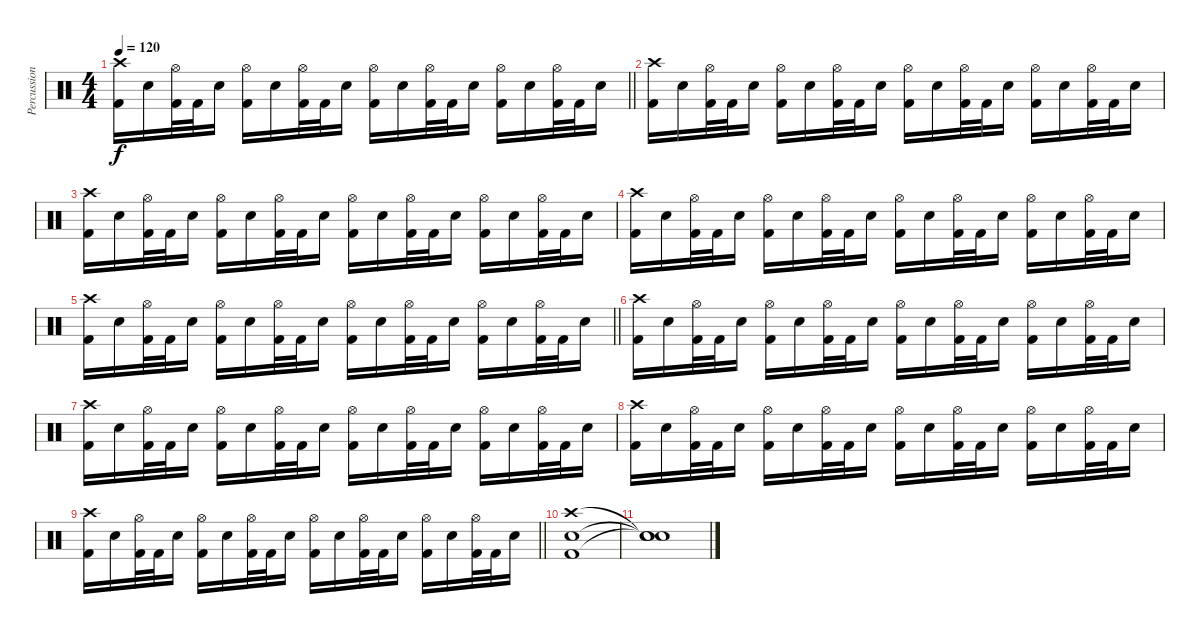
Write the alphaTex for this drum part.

\track ("Percussion" "Percussion") {instrument percussion}
\staff {score}
\articulation defaults
\ts (4 4)
\tempo 120
\clef neutral
\barLineRight lightlight
\ks c
("Crash high (hit)" "Kick (hit) 2").16{dy f} "Snare (hit) 2".16 ("Hi-Hat (open)" "Kick (hit) 2").32 "Kick (hit) 2".32 "Snare (hit) 2".16 ("Hi-Hat (open)" "Kick (hit) 2").16 "Snare (hit) 2".16 ("Hi-Hat (open)" "Kick (hit) 2").32 "Kick (hit) 2".32 "Snare (hit) 2".16 ("Hi-Hat (open)" "Kick (hit) 2").16 "Snare (hit) 2".16 ("Hi-Hat (open)" "Kick (hit) 2").32 "Kick (hit) 2".32 "Snare (hit) 2".16 ("Hi-Hat (open)" "Kick (hit) 2").16 "Snare (hit) 2".16 ("Hi-Hat (open)" "Kick (hit) 2").32 "Kick (hit) 2".32 "Snare (hit) 2".16 |
("Crash high (hit)" "Kick (hit) 2").16 "Snare (hit) 2".16 ("Hi-Hat (open)" "Kick (hit) 2").32 "Kick (hit) 2".32 "Snare (hit) 2".16 ("Hi-Hat (open)" "Kick (hit) 2").16 "Snare (hit) 2".16 ("Hi-Hat (open)" "Kick (hit) 2").32 "Kick (hit) 2".32 "Snare (hit) 2".16 ("Hi-Hat (open)" "Kick (hit) 2").16 "Snare (hit) 2".16 ("Hi-Hat (open)" "Kick (hit) 2").32 "Kick (hit) 2".32 "Snare (hit) 2".16 ("Hi-Hat (open)" "Kick (hit) 2").16 "Snare (hit) 2".16 ("Hi-Hat (open)" "Kick (hit) 2").32 "Kick (hit) 2".32 "Snare (hit) 2".16 |
("Crash high (hit)" "Kick (hit) 2").16 "Snare (hit) 2".16 ("Hi-Hat (open)" "Kick (hit) 2").32 "Kick (hit) 2".32 "Snare (hit) 2".16 ("Hi-Hat (open)" "Kick (hit) 2").16 "Snare (hit) 2".16 ("Hi-Hat (open)" "Kick (hit) 2").32 "Kick (hit) 2".32 "Snare (hit) 2".16 ("Hi-Hat (open)" "Kick (hit) 2").16 "Snare (hit) 2".16 ("Hi-Hat (open)" "Kick (hit) 2").32 "Kick (hit) 2".32 "Snare (hit) 2".16 ("Hi-Hat (open)" "Kick (hit) 2").16 "Snare (hit) 2".16 ("Hi-Hat (open)" "Kick (hit) 2").32 "Kick (hit) 2".32 "Snare (hit) 2".16 |
("Crash high (hit)" "Kick (hit) 2").16 "Snare (hit) 2".16 ("Hi-Hat (open)" "Kick (hit) 2").32 "Kick (hit) 2".32 "Snare (hit) 2".16 ("Hi-Hat (open)" "Kick (hit) 2").16 "Snare (hit) 2".16 ("Hi-Hat (open)" "Kick (hit) 2").32 "Kick (hit) 2".32 "Snare (hit) 2".16 ("Hi-Hat (open)" "Kick (hit) 2").16 "Snare (hit) 2".16 ("Hi-Hat (open)" "Kick (hit) 2").32 "Kick (hit) 2".32 "Snare (hit) 2".16 ("Hi-Hat (open)" "Kick (hit) 2").16 "Snare (hit) 2".16 ("Hi-Hat (open)" "Kick (hit) 2").32 "Kick (hit) 2".32 "Snare (hit) 2".16 |
\barLineRight lightlight
("Crash high (hit)" "Kick (hit) 2").16 "Snare (hit) 2".16 ("Hi-Hat (open)" "Kick (hit) 2").32 "Kick (hit) 2".32 "Snare (hit) 2".16 ("Hi-Hat (open)" "Kick (hit) 2").16 "Snare (hit) 2".16 ("Hi-Hat (open)" "Kick (hit) 2").32 "Kick (hit) 2".32 "Snare (hit) 2".16 ("Hi-Hat (open)" "Kick (hit) 2").16 "Snare (hit) 2".16 ("Hi-Hat (open)" "Kick (hit) 2").32 "Kick (hit) 2".32 "Snare (hit) 2".16 ("Hi-Hat (open)" "Kick (hit) 2").16 "Snare (hit) 2".16 ("Hi-Hat (open)" "Kick (hit) 2").32 "Kick (hit) 2".32 "Snare (hit) 2".16 |
("Crash high (hit)" "Kick (hit) 2").16 "Snare (hit) 2".16 ("Hi-Hat (open)" "Kick (hit) 2").32 "Kick (hit) 2".32 "Snare (hit) 2".16 ("Hi-Hat (open)" "Kick (hit) 2").16 "Snare (hit) 2".16 ("Hi-Hat (open)" "Kick (hit) 2").32 "Kick (hit) 2".32 "Snare (hit) 2".16 ("Hi-Hat (open)" "Kick (hit) 2").16 "Snare (hit) 2".16 ("Hi-Hat (open)" "Kick (hit) 2").32 "Kick (hit) 2".32 "Snare (hit) 2".16 ("Hi-Hat (open)" "Kick (hit) 2").16 "Snare (hit) 2".16 ("Hi-Hat (open)" "Kick (hit) 2").32 "Kick (hit) 2".32 "Snare (hit) 2".16 |
("Crash high (hit)" "Kick (hit) 2").16 "Snare (hit) 2".16 ("Hi-Hat (open)" "Kick (hit) 2").32 "Kick (hit) 2".32 "Snare (hit) 2".16 ("Hi-Hat (open)" "Kick (hit) 2").16 "Snare (hit) 2".16 ("Hi-Hat (open)" "Kick (hit) 2").32 "Kick (hit) 2".32 "Snare (hit) 2".16 ("Hi-Hat (open)" "Kick (hit) 2").16 "Snare (hit) 2".16 ("Hi-Hat (open)" "Kick (hit) 2").32 "Kick (hit) 2".32 "Snare (hit) 2".16 ("Hi-Hat (open)" "Kick (hit) 2").16 "Snare (hit) 2".16 ("Hi-Hat (open)" "Kick (hit) 2").32 "Kick (hit) 2".32 "Snare (hit) 2".16 |
("Crash high (hit)" "Kick (hit) 2").16 "Snare (hit) 2".16 ("Hi-Hat (open)" "Kick (hit) 2").32 "Kick (hit) 2".32 "Snare (hit) 2".16 ("Hi-Hat (open)" "Kick (hit) 2").16 "Snare (hit) 2".16 ("Hi-Hat (open)" "Kick (hit) 2").32 "Kick (hit) 2".32 "Snare (hit) 2".16 ("Hi-Hat (open)" "Kick (hit) 2").16 "Snare (hit) 2".16 ("Hi-Hat (open)" "Kick (hit) 2").32 "Kick (hit) 2".32 "Snare (hit) 2".16 ("Hi-Hat (open)" "Kick (hit) 2").16 "Snare (hit) 2".16 ("Hi-Hat (open)" "Kick (hit) 2").32 "Kick (hit) 2".32 "Snare (hit) 2".16 |
\barLineRight lightlight
("Crash high (hit)" "Kick (hit) 2").16 "Snare (hit) 2".16 ("Hi-Hat (open)" "Kick (hit) 2").32 "Kick (hit) 2".32 "Snare (hit) 2".16 ("Hi-Hat (open)" "Kick (hit) 2").16 "Snare (hit) 2".16 ("Hi-Hat (open)" "Kick (hit) 2").32 "Kick (hit) 2".32 "Snare (hit) 2".16 ("Hi-Hat (open)" "Kick (hit) 2").16 "Snare (hit) 2".16 ("Hi-Hat (open)" "Kick (hit) 2").32 "Kick (hit) 2".32 "Snare (hit) 2".16 ("Hi-Hat (open)" "Kick (hit) 2").16 "Snare (hit) 2".16 ("Hi-Hat (open)" "Kick (hit) 2").32 "Kick (hit) 2".32 "Snare (hit) 2".16 |
("Crash high (hit)" "Snare (hit) 2" "Kick (hit) 2").1 |
("Snare (hit)"{t} "Snare (hit)"{t} "Snare (hit)"{t}).1
